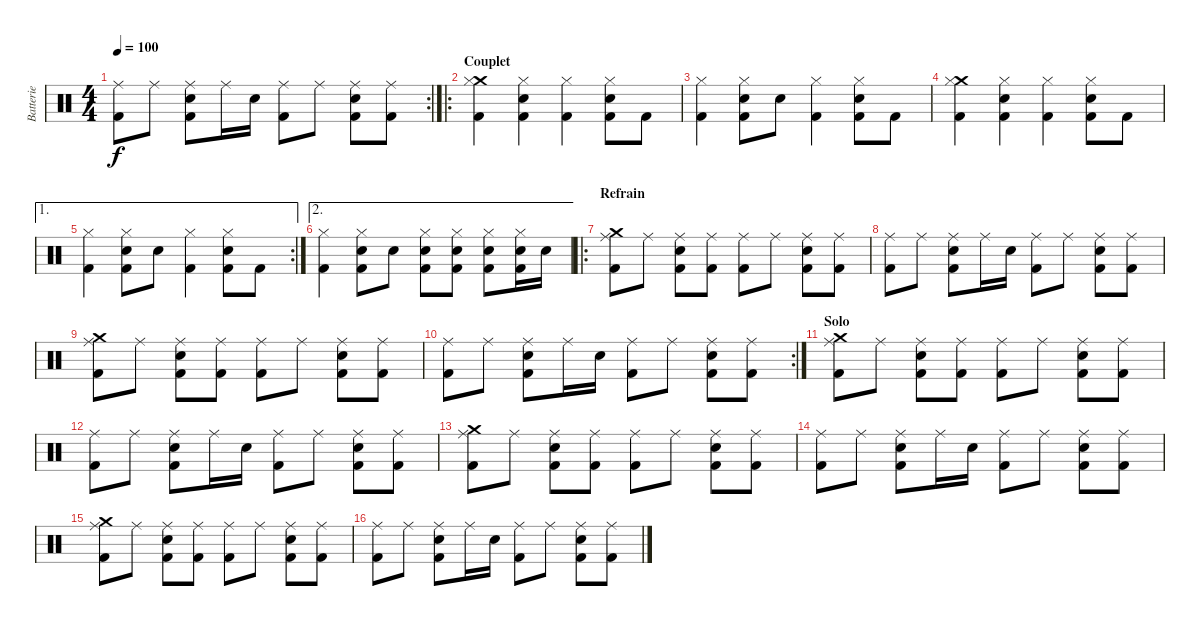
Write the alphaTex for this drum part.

\track ("Batterie" "Batterie") {instrument percussion}
\staff {score}
\articulation defaults
\rc 2
\ts (4 4)
\tempo 100
\clef neutral
\ks c
("Ride (middle)" "Kick (hit) 2").8{dy f} "Ride (middle)".8 ("Ride (middle)" "Snare (hit) 2" "Kick (hit) 2").8 "Ride (middle)".16 "Snare (hit) 2".16 ("Ride (middle)" "Kick (hit) 2").8 "Ride (middle)".8 ("Ride (middle)" "Snare (hit) 2" "Kick (hit) 2").8 ("Ride (middle)" "Kick (hit) 2").8 |
\ro
\section ("" "Couplet")
("Crash medium (hit)" "Hi-Hat (closed)" "Kick (hit) 2").4 ("Hi-Hat (closed)" "Snare (hit) 2" "Kick (hit) 2").4 ("Hi-Hat (closed)" "Kick (hit) 2").4 ("Hi-Hat (closed)" "Snare (hit) 2" "Kick (hit) 2").8 "Kick (hit) 2".8 |
("Hi-Hat (closed)" "Kick (hit) 2").4 ("Hi-Hat (closed)" "Snare (hit) 2" "Kick (hit) 2").8 "Snare (hit) 2".8 ("Hi-Hat (closed)" "Kick (hit) 2").4 ("Hi-Hat (closed)" "Snare (hit) 2" "Kick (hit) 2").8 "Kick (hit) 2".8 |
("Crash medium (hit)" "Hi-Hat (closed)" "Kick (hit) 2").4 ("Hi-Hat (closed)" "Snare (hit) 2" "Kick (hit) 2").4 ("Hi-Hat (closed)" "Kick (hit) 2").4 ("Hi-Hat (closed)" "Snare (hit) 2" "Kick (hit) 2").8 "Kick (hit) 2".8 |
\ae 1
\rc 2
("Hi-Hat (closed)" "Kick (hit) 2").4 ("Hi-Hat (closed)" "Snare (hit) 2" "Kick (hit) 2").8 "Snare (hit) 2".8 ("Hi-Hat (closed)" "Kick (hit) 2").4 ("Hi-Hat (closed)" "Snare (hit) 2" "Kick (hit) 2").8 "Kick (hit) 2".8 |
\ae 2
("Hi-Hat (closed)" "Kick (hit) 2").4 ("Hi-Hat (closed)" "Snare (hit) 2" "Kick (hit) 2").8 "Snare (hit) 2".8 ("Hi-Hat (closed)" "Snare (hit) 2" "Kick (hit) 2").8 ("Hi-Hat (closed)" "Snare (hit) 2" "Kick (hit) 2").8 ("Hi-Hat (closed)" "Snare (hit) 2" "Kick (hit) 2").8 ("Hi-Hat (closed)" "Snare (hit) 2" "Kick (hit) 2").16 "Snare (hit) 2".16 |
\ro
\section ("" "Refrain")
("Crash medium (hit)" "Ride (middle)" "Kick (hit) 2").8 "Ride (middle)".8 ("Ride (middle)" "Snare (hit) 2" "Kick (hit) 2").8 ("Ride (middle)" "Kick (hit) 2").8 ("Ride (middle)" "Kick (hit) 2").8 "Ride (middle)".8 ("Ride (middle)" "Snare (hit) 2" "Kick (hit) 2").8 ("Ride (middle)" "Kick (hit) 2").8 |
("Ride (middle)" "Kick (hit) 2").8 "Ride (middle)".8 ("Ride (middle)" "Snare (hit) 2" "Kick (hit) 2").8 "Ride (middle)".16 "Snare (hit) 2".16 ("Ride (middle)" "Kick (hit) 2").8 "Ride (middle)".8 ("Ride (middle)" "Snare (hit) 2" "Kick (hit) 2").8 ("Ride (middle)" "Kick (hit) 2").8 |
("Crash medium (hit)" "Ride (middle)" "Kick (hit) 2").8 "Ride (middle)".8 ("Ride (middle)" "Snare (hit) 2" "Kick (hit) 2").8 ("Ride (middle)" "Kick (hit) 2").8 ("Ride (middle)" "Kick (hit) 2").8 "Ride (middle)".8 ("Ride (middle)" "Snare (hit) 2" "Kick (hit) 2").8 ("Ride (middle)" "Kick (hit) 2").8 |
\rc 2
("Ride (middle)" "Kick (hit) 2").8 "Ride (middle)".8 ("Ride (middle)" "Snare (hit) 2" "Kick (hit) 2").8 "Ride (middle)".16 "Snare (hit) 2".16 ("Ride (middle)" "Kick (hit) 2").8 "Ride (middle)".8 ("Ride (middle)" "Snare (hit) 2" "Kick (hit) 2").8 ("Ride (middle)" "Kick (hit) 2").8 |
\section ("" "Solo")
("Crash medium (hit)" "Ride (middle)" "Kick (hit) 2").8 "Ride (middle)".8 ("Ride (middle)" "Snare (hit) 2" "Kick (hit) 2").8 ("Ride (middle)" "Kick (hit) 2").8 ("Ride (middle)" "Kick (hit) 2").8 "Ride (middle)".8 ("Ride (middle)" "Snare (hit) 2" "Kick (hit) 2").8 ("Ride (middle)" "Kick (hit) 2").8 |
("Ride (middle)" "Kick (hit) 2").8 "Ride (middle)".8 ("Ride (middle)" "Snare (hit) 2" "Kick (hit) 2").8 "Ride (middle)".16 "Snare (hit) 2".16 ("Ride (middle)" "Kick (hit) 2").8 "Ride (middle)".8 ("Ride (middle)" "Snare (hit) 2" "Kick (hit) 2").8 ("Ride (middle)" "Kick (hit) 2").8 |
("Crash medium (hit)" "Ride (middle)" "Kick (hit) 2").8 "Ride (middle)".8 ("Ride (middle)" "Snare (hit) 2" "Kick (hit) 2").8 ("Ride (middle)" "Kick (hit) 2").8 ("Ride (middle)" "Kick (hit) 2").8 "Ride (middle)".8 ("Ride (middle)" "Snare (hit) 2" "Kick (hit) 2").8 ("Ride (middle)" "Kick (hit) 2").8 |
("Ride (middle)" "Kick (hit) 2").8 "Ride (middle)".8 ("Ride (middle)" "Snare (hit) 2" "Kick (hit) 2").8 "Ride (middle)".16 "Snare (hit) 2".16 ("Ride (middle)" "Kick (hit) 2").8 "Ride (middle)".8 ("Ride (middle)" "Snare (hit) 2" "Kick (hit) 2").8 ("Ride (middle)" "Kick (hit) 2").8 |
("Crash medium (hit)" "Ride (middle)" "Kick (hit) 2").8 "Ride (middle)".8 ("Ride (middle)" "Snare (hit) 2" "Kick (hit) 2").8 ("Ride (middle)" "Kick (hit) 2").8 ("Ride (middle)" "Kick (hit) 2").8 "Ride (middle)".8 ("Ride (middle)" "Snare (hit) 2" "Kick (hit) 2").8 ("Ride (middle)" "Kick (hit) 2").8 |
("Ride (middle)" "Kick (hit) 2").8 "Ride (middle)".8 ("Ride (middle)" "Snare (hit) 2" "Kick (hit) 2").8 "Ride (middle)".16 "Snare (hit) 2".16 ("Ride (middle)" "Kick (hit) 2").8 "Ride (middle)".8 ("Ride (middle)" "Snare (hit) 2" "Kick (hit) 2").8 ("Ride (middle)" "Kick (hit) 2").8
